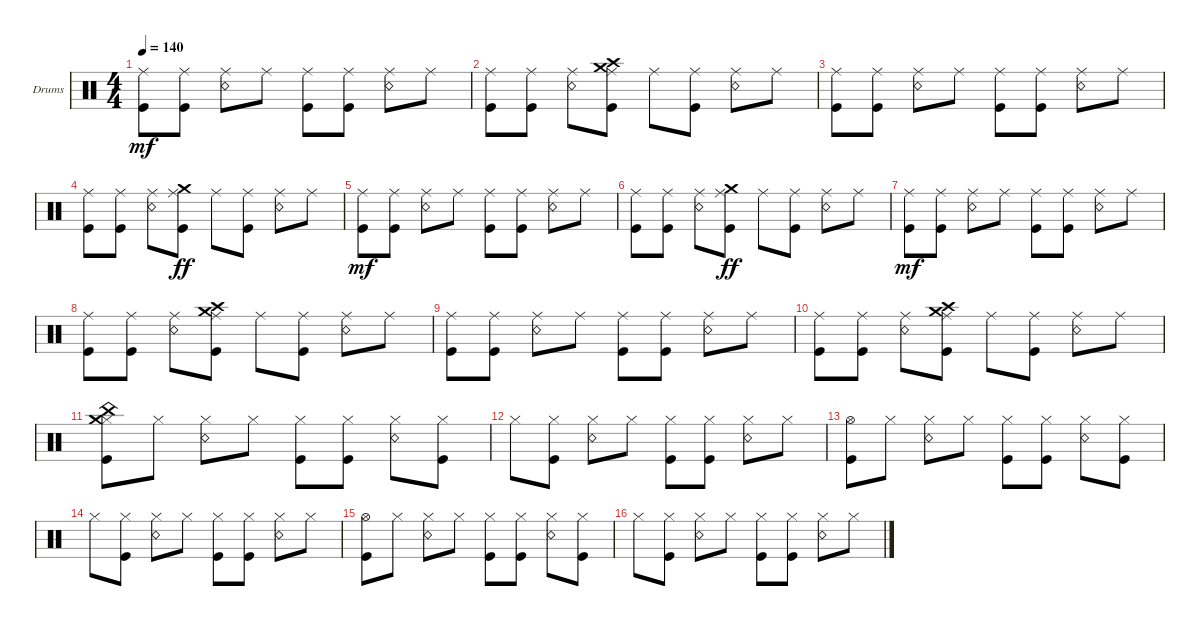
\defaultSystemsLayout 4
\bracketExtendMode groupsimilarinstruments
\firstSystemTrackNameOrientation horizontal
\otherSystemsTrackNameOrientation horizontal
\track ("Drumkit" "Drums") {instrument percussion}
\staff {score}
\articulation defaults
\ts (4 4)
\tempo 140
\clef neutral
\ks c
("Ride (middle)" "Kick (hit)").8{dy mf} ("Ride (middle)" "Kick (hit)").8 ("Ride (middle)" "Snare (rim shot)").8 "Ride (middle)".8 ("Ride (middle)" "Kick (hit)").8 ("Ride (middle)" "Kick (hit)").8 ("Ride (middle)" "Snare (rim shot)").8 "Ride (middle)".8 |
("Ride (middle)" "Kick (hit)").8 ("Ride (middle)" "Kick (hit)").8 ("Ride (middle)" "Snare (rim shot)").8 ("Ride (middle)" "Kick (hit)" "Crash medium (hit)" "Crash high (hit)").8 "Ride (middle)".8 ("Ride (middle)" "Kick (hit)").8 ("Ride (middle)" "Snare (rim shot)").8 "Ride (middle)".8 |
("Ride (middle)" "Kick (hit)").8 ("Ride (middle)" "Kick (hit)").8 ("Ride (middle)" "Snare (rim shot)").8 "Ride (middle)".8 ("Ride (middle)" "Kick (hit)").8 ("Ride (middle)" "Kick (hit)").8 ("Ride (middle)" "Snare (rim shot)").8 "Ride (middle)".8 |
("Ride (middle)" "Kick (hit)").8 ("Ride (middle)" "Kick (hit)").8 ("Ride (middle)" "Snare (rim shot)").8 ("Ride (middle)" "Kick (hit)" "Crash medium (hit)").8{dy ff} "Ride (middle)".8 ("Ride (middle)" "Kick (hit)").8 ("Ride (middle)" "Snare (rim shot)").8 "Ride (middle)".8 |
("Ride (middle)" "Kick (hit)").8{dy mf} ("Ride (middle)" "Kick (hit)").8 ("Ride (middle)" "Snare (rim shot)").8 "Ride (middle)".8 ("Ride (middle)" "Kick (hit)").8 ("Ride (middle)" "Kick (hit)").8 ("Ride (middle)" "Snare (rim shot)").8 "Ride (middle)".8 |
("Ride (middle)" "Kick (hit)").8 ("Ride (middle)" "Kick (hit)").8 ("Ride (middle)" "Snare (rim shot)").8 ("Ride (middle)" "Kick (hit)" "Crash medium (hit)").8{dy ff} "Ride (middle)".8 ("Ride (middle)" "Kick (hit)").8 ("Ride (middle)" "Snare (rim shot)").8 "Ride (middle)".8 |
("Ride (middle)" "Kick (hit)").8{dy mf} ("Ride (middle)" "Kick (hit)").8 ("Ride (middle)" "Snare (rim shot)").8 "Ride (middle)".8 ("Ride (middle)" "Kick (hit)").8 ("Ride (middle)" "Kick (hit)").8 ("Ride (middle)" "Snare (rim shot)").8 "Ride (middle)".8 |
("Ride (middle)" "Kick (hit)").8 ("Ride (middle)" "Kick (hit)").8 ("Ride (middle)" "Snare (rim shot)").8 ("Ride (middle)" "Kick (hit)" "Crash medium (hit)" "Crash high (hit)").8 "Ride (middle)".8 ("Ride (middle)" "Kick (hit)").8 ("Ride (middle)" "Snare (rim shot)").8 "Ride (middle)".8 |
("Ride (middle)" "Kick (hit)").8 ("Ride (middle)" "Kick (hit)").8 ("Ride (middle)" "Snare (rim shot)").8 "Ride (middle)".8 ("Ride (middle)" "Kick (hit)").8 ("Ride (middle)" "Kick (hit)").8 ("Ride (middle)" "Snare (rim shot)").8 "Ride (middle)".8 |
("Ride (middle)" "Kick (hit)").8 ("Ride (middle)" "Kick (hit)").8 ("Ride (middle)" "Snare (rim shot)").8 ("Ride (middle)" "Kick (hit)" "Crash medium (hit)" "Crash high (hit)").8 "Ride (middle)".8 ("Ride (middle)" "Kick (hit)").8 ("Ride (middle)" "Snare (rim shot)").8 "Ride (middle)".8 |
("Kick (hit)" "Hi-Hat (closed)" "China (hit)" "Crash medium (hit)").8 "Hi-Hat (closed)".8 ("Hi-Hat (closed)" "Snare (rim shot)").8 "Hi-Hat (closed)".8 ("Hi-Hat (closed)" "Kick (hit)").8 ("Hi-Hat (closed)" "Kick (hit)").8 ("Hi-Hat (closed)" "Snare (rim shot)").8 ("Hi-Hat (closed)" "Kick (hit)").8 |
"Hi-Hat (closed)".8 ("Hi-Hat (closed)" "Kick (hit)").8 ("Hi-Hat (closed)" "Snare (rim shot)").8 "Hi-Hat (closed)".8 ("Hi-Hat (closed)" "Kick (hit)").8 ("Hi-Hat (closed)" "Kick (hit)").8 ("Hi-Hat (closed)" "Snare (rim shot)").8 "Hi-Hat (closed)".8 |
("Kick (hit)" "Hi-Hat (open)").8 "Hi-Hat (closed)".8 ("Hi-Hat (closed)" "Snare (rim shot)").8 "Hi-Hat (closed)".8 ("Hi-Hat (closed)" "Kick (hit)").8 ("Hi-Hat (closed)" "Kick (hit)").8 ("Hi-Hat (closed)" "Snare (rim shot)").8 ("Hi-Hat (closed)" "Kick (hit)").8 |
"Hi-Hat (closed)".8 ("Hi-Hat (closed)" "Kick (hit)").8 ("Hi-Hat (closed)" "Snare (rim shot)").8 "Hi-Hat (closed)".8 ("Hi-Hat (closed)" "Kick (hit)").8 ("Hi-Hat (closed)" "Kick (hit)").8 ("Hi-Hat (closed)" "Snare (rim shot)").8 "Hi-Hat (closed)".8 |
("Kick (hit)" "Hi-Hat (open)").8 "Hi-Hat (closed)".8 ("Hi-Hat (closed)" "Snare (rim shot)").8 "Hi-Hat (closed)".8 ("Hi-Hat (closed)" "Kick (hit)").8 ("Hi-Hat (closed)" "Kick (hit)").8 ("Hi-Hat (closed)" "Snare (rim shot)").8 ("Hi-Hat (closed)" "Kick (hit)").8 |
"Hi-Hat (closed)".8 ("Hi-Hat (closed)" "Kick (hit)").8 ("Hi-Hat (closed)" "Snare (rim shot)").8 "Hi-Hat (closed)".8 ("Hi-Hat (closed)" "Kick (hit)").8 ("Hi-Hat (closed)" "Kick (hit)").8 ("Hi-Hat (closed)" "Snare (rim shot)").8 "Hi-Hat (closed)".8
